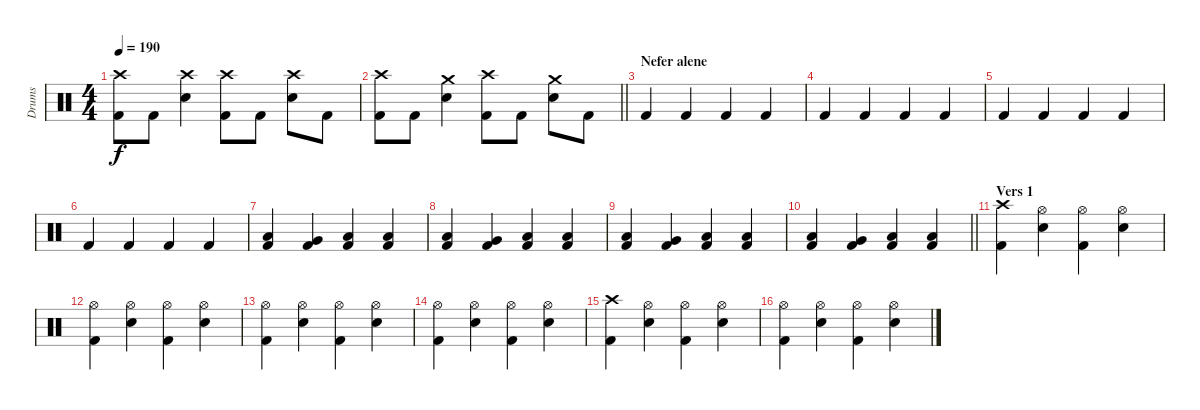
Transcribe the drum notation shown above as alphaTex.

\track ("Drums" "Drums") {instrument percussion}
\staff {score}
\articulation defaults
\ts (4 4)
\tempo 190
\clef neutral
\ks c
("Crash high (hit)" "Kick (hit) 2").8{dy f} "Kick (hit) 2".8 ("Crash high (hit)" "Snare (hit) 2").4 ("Crash high (hit)" "Kick (hit) 2").8 "Kick (hit) 2".8 ("Crash high (hit)" "Snare (hit) 2").8 "Kick (hit) 2".8 |
\barLineRight lightlight
("Crash high (hit)" "Kick (hit) 2").8 "Kick (hit) 2".8 ("Crash medium (hit)" "Snare (hit) 2").4 ("Crash high (hit)" "Kick (hit) 2").8 "Kick (hit) 2".8 ("Crash medium (hit)" "Snare (hit) 2").8 "Kick (hit) 2".8 |
\section ("" "Nefer alene")
"Kick (hit) 2".4 "Kick (hit) 2".4 "Kick (hit) 2".4 "Kick (hit) 2".4 |
"Kick (hit) 2".4 "Kick (hit) 2".4 "Kick (hit) 2".4 "Kick (hit) 2".4 |
"Kick (hit) 2".4 "Kick (hit) 2".4 "Kick (hit) 2".4 "Kick (hit) 2".4 |
"Kick (hit) 2".4 "Kick (hit) 2".4 "Kick (hit) 2".4 "Kick (hit) 2".4 |
("Low Tom (hit)" "Kick (hit) 2").4 ("Very Low Tom (hit)" "Kick (hit) 2").4 ("Low Floor Tom (hit)" "Kick (hit) 2").4 ("Low Floor Tom (hit)" "Kick (hit) 2").4 |
("Low Tom (hit)" "Kick (hit) 2").4 ("Very Low Tom (hit)" "Kick (hit) 2").4 ("Low Floor Tom (hit)" "Kick (hit) 2").4 ("Low Floor Tom (hit)" "Kick (hit) 2").4 |
("Low Tom (hit)" "Kick (hit) 2").4 ("Very Low Tom (hit)" "Kick (hit) 2").4 ("Low Floor Tom (hit)" "Kick (hit) 2").4 ("Low Floor Tom (hit)" "Kick (hit) 2").4 |
\barLineRight lightlight
("Low Tom (hit)" "Kick (hit) 2").4 ("Very Low Tom (hit)" "Kick (hit) 2").4 ("Low Floor Tom (hit)" "Kick (hit) 2").4 ("Low Floor Tom (hit)" "Kick (hit) 2").4 |
\section ("" "Vers 1")
("Crash high (hit)" "Kick (hit) 2").4 ("Hi-Hat (open)" "Snare (hit) 2").4 ("Hi-Hat (open)" "Kick (hit) 2").4 ("Hi-Hat (open)" "Snare (hit) 2").4 |
("Hi-Hat (open)" "Kick (hit) 2").4 ("Hi-Hat (open)" "Snare (hit) 2").4 ("Hi-Hat (open)" "Kick (hit) 2").4 ("Hi-Hat (open)" "Snare (hit) 2").4 |
("Hi-Hat (open)" "Kick (hit) 2").4 ("Hi-Hat (open)" "Snare (hit) 2").4 ("Hi-Hat (open)" "Kick (hit) 2").4 ("Hi-Hat (open)" "Snare (hit) 2").4 |
("Hi-Hat (open)" "Kick (hit) 2").4 ("Hi-Hat (open)" "Snare (hit) 2").4 ("Hi-Hat (open)" "Kick (hit) 2").4 ("Hi-Hat (open)" "Snare (hit) 2").4 |
("Crash high (hit)" "Kick (hit) 2").4 ("Hi-Hat (open)" "Snare (hit) 2").4 ("Hi-Hat (open)" "Kick (hit) 2").4 ("Hi-Hat (open)" "Snare (hit) 2").4 |
("Hi-Hat (open)" "Kick (hit) 2").4 ("Hi-Hat (open)" "Snare (hit) 2").4 ("Hi-Hat (open)" "Kick (hit) 2").4 ("Hi-Hat (open)" "Snare (hit) 2").4
